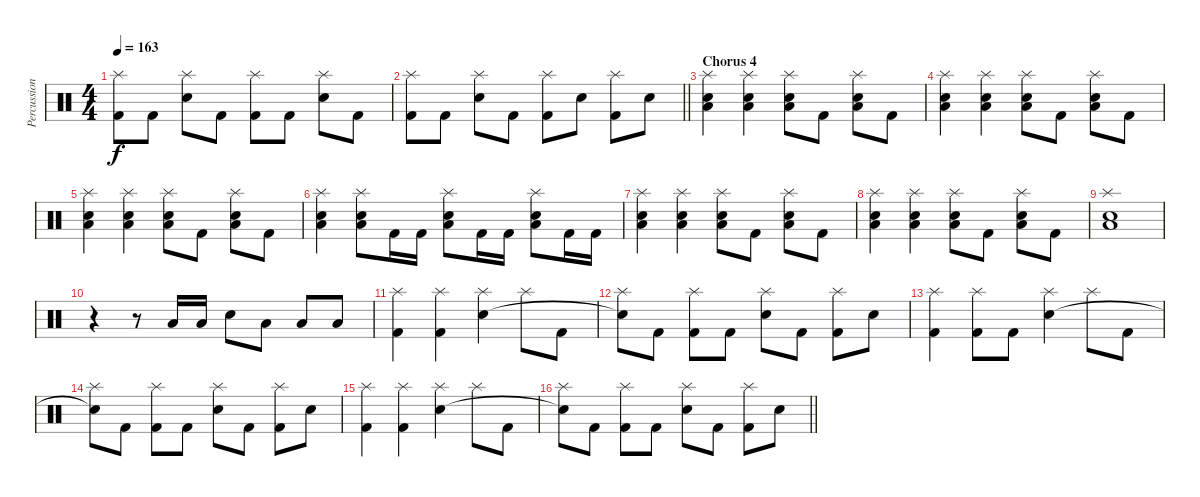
\track ("Percussion" "Percussion") {solo instrument percussion}
\staff {score}
\articulation defaults
\ts (4 4)
\tempo 163
\clef neutral
\ks c
("Splash (hit)" "Kick (hit) 2").8{dy f} "Kick (hit) 2".8 ("Splash (hit)" "Snare (hit) 2").8 "Kick (hit) 2".8 ("Splash (hit)" "Kick (hit) 2").8 "Kick (hit) 2".8 ("Splash (hit)" "Snare (hit) 2").8 "Kick (hit) 2".8 |
\barLineRight lightlight
("Splash (hit)" "Kick (hit) 2").8 "Kick (hit) 2".8 ("Splash (hit)" "Snare (hit) 2").8 "Kick (hit) 2".8 ("Splash (hit)" "Kick (hit) 2").8 "Snare (hit) 2".8 ("Splash (hit)" "Kick (hit) 2").8 "Snare (hit) 2".8 |
\section ("" "Chorus 4")
("Splash (hit)" "Low Tom (hit)" "Snare (hit) 2").4 ("Splash (hit)" "Low Tom (hit)" "Snare (hit) 2").4 ("Splash (hit)" "Low Tom (hit)" "Snare (hit) 2").8 "Kick (hit) 2".8 ("Splash (hit)" "Low Tom (hit)" "Snare (hit) 2").8 "Kick (hit) 2".8 |
("Splash (hit)" "Low Tom (hit)" "Snare (hit) 2").4 ("Splash (hit)" "Low Tom (hit)" "Snare (hit) 2").4 ("Splash (hit)" "Low Tom (hit)" "Snare (hit) 2").8 "Kick (hit) 2".8 ("Splash (hit)" "Low Tom (hit)" "Snare (hit) 2").8 "Kick (hit) 2".8 |
("Splash (hit)" "Low Tom (hit)" "Snare (hit) 2").4 ("Splash (hit)" "Low Tom (hit)" "Snare (hit) 2").4 ("Splash (hit)" "Low Tom (hit)" "Snare (hit) 2").8 "Kick (hit) 2".8 ("Splash (hit)" "Low Tom (hit)" "Snare (hit) 2").8 "Kick (hit) 2".8 |
("Splash (hit)" "Low Tom (hit)" "Snare (hit) 2").4 ("Splash (hit)" "Low Tom (hit)" "Snare (hit) 2").8 "Kick (hit) 2".16 "Kick (hit) 2".16 ("Splash (hit)" "Low Tom (hit)" "Snare (hit) 2").8 "Kick (hit) 2".16 "Kick (hit) 2".16 ("Splash (hit)" "Low Tom (hit)" "Snare (hit) 2").8 "Kick (hit) 2".16 "Kick (hit) 2".16 |
("Splash (hit)" "Low Tom (hit)" "Snare (hit) 2").4 ("Splash (hit)" "Low Tom (hit)" "Snare (hit) 2").4 ("Splash (hit)" "Low Tom (hit)" "Snare (hit) 2").8 "Kick (hit) 2".8 ("Splash (hit)" "Low Tom (hit)" "Snare (hit) 2").8 "Kick (hit) 2".8 |
("Splash (hit)" "Low Tom (hit)" "Snare (hit) 2").4 ("Splash (hit)" "Low Tom (hit)" "Snare (hit) 2").4 ("Splash (hit)" "Low Tom (hit)" "Snare (hit) 2").8 "Kick (hit) 2".8 ("Splash (hit)" "Low Tom (hit)" "Snare (hit) 2").8 "Kick (hit) 2".8 |
("Splash (hit)" "Low Tom (hit)" "Snare (hit) 2").1 |
r.4 r.8 "Low Tom (hit)".16 "Low Tom (hit)".16 "Snare (hit) 2".8 "Low Floor Tom (hit)".8 "Low Tom (hit)".8 "Low Floor Tom (hit)".8 |
("Splash (hit)" "Kick (hit) 2").4 ("Splash (hit)" "Kick (hit) 2").4 ("Splash (hit)" "Snare (hit) 2").4 "Splash (hit)".8 "Kick (hit) 2".8 |
("Splash (hit)" "Snare (hit)"{t}).8 "Kick (hit) 2".8 ("Splash (hit)" "Kick (hit) 2").8 "Kick (hit) 2".8 ("Splash (hit)" "Snare (hit) 2").8 "Kick (hit) 2".8 ("Splash (hit)" "Kick (hit) 2").8 "Snare (hit) 2".8 |
("Splash (hit)" "Kick (hit) 2").4 ("Splash (hit)" "Kick (hit) 2").8 "Kick (hit) 2".8 ("Splash (hit)" "Snare (hit) 2").4 "Splash (hit)".8 "Kick (hit) 2".8 |
("Splash (hit)" "Snare (hit)"{t}).8 "Kick (hit) 2".8 ("Splash (hit)" "Kick (hit) 2").8 "Kick (hit) 2".8 ("Splash (hit)" "Snare (hit) 2").8 "Kick (hit) 2".8 ("Splash (hit)" "Kick (hit) 2").8 "Snare (hit) 2".8 |
("Splash (hit)" "Kick (hit) 2").4 ("Splash (hit)" "Kick (hit) 2").4 ("Splash (hit)" "Snare (hit) 2").4 "Splash (hit)".8 "Kick (hit) 2".8 |
\barLineRight lightlight
("Splash (hit)" "Snare (hit)"{t}).8 "Kick (hit) 2".8 ("Splash (hit)" "Kick (hit) 2").8 "Kick (hit) 2".8 ("Splash (hit)" "Snare (hit) 2").8 "Kick (hit) 2".8 ("Splash (hit)" "Kick (hit) 2").8 "Snare (hit) 2".8
